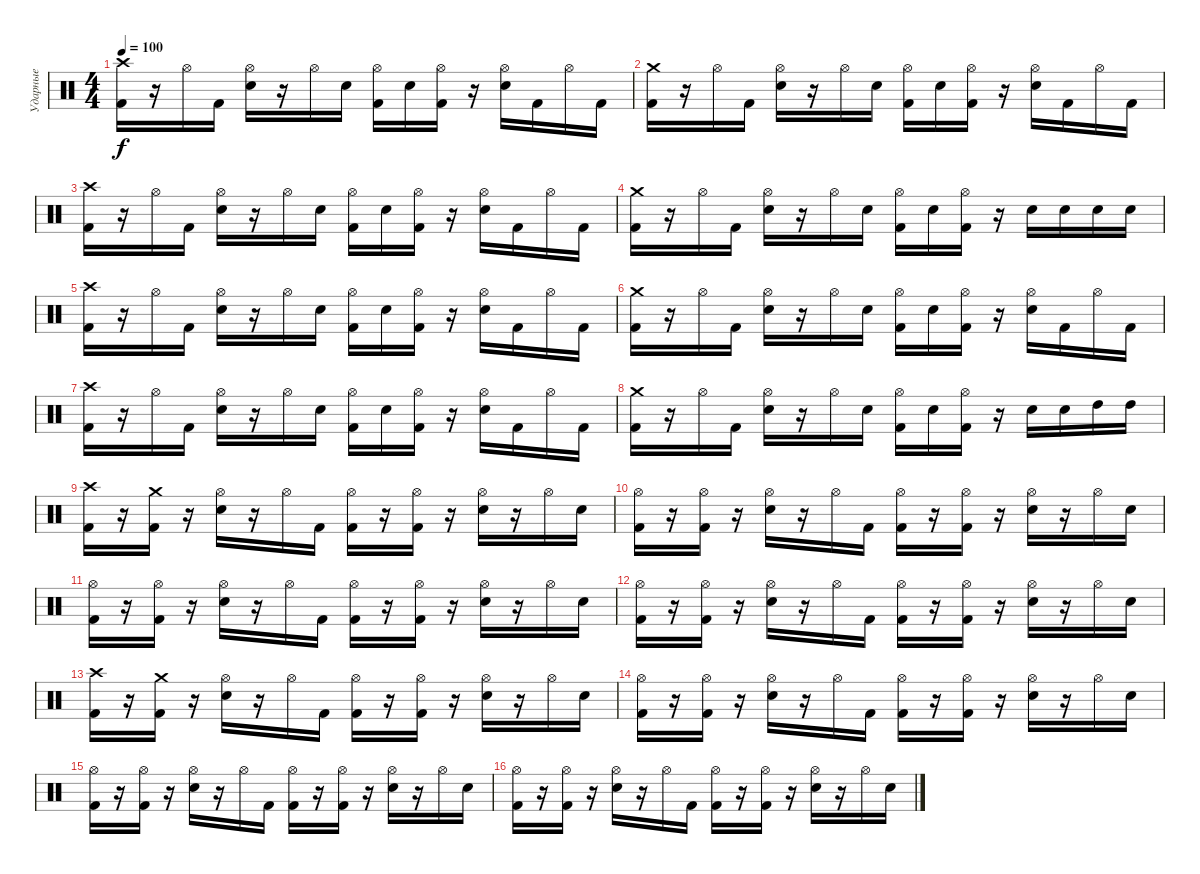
\track ("Ударные" "Ударные") {instrument percussion}
\staff {score}
\articulation defaults
\ts (4 4)
\tempo 100
\clef neutral
\ks c
("Crash high (hit)" "Kick (hit) 2").16{dy f} r.16 "Hi-Hat (open)".16 "Kick (hit) 2".16 ("Hi-Hat (open)" "Snare (hit) 2").16 r.16 "Hi-Hat (open)".16 "Snare (hit) 2".16 ("Hi-Hat (open)" "Kick (hit) 2").16 "Snare (hit) 2".16 ("Hi-Hat (open)" "Kick (hit) 2").16 r.16 ("Hi-Hat (open)" "Snare (hit) 2").16 "Kick (hit) 2".16 "Hi-Hat (open)".16 "Kick (hit) 2".16 |
("Crash medium (hit)" "Kick (hit) 2").16 r.16 "Hi-Hat (open)".16 "Kick (hit) 2".16 ("Hi-Hat (open)" "Snare (hit) 2").16 r.16 "Hi-Hat (open)".16 "Snare (hit) 2".16 ("Hi-Hat (open)" "Kick (hit) 2").16 "Snare (hit) 2".16 ("Hi-Hat (open)" "Kick (hit) 2").16 r.16 ("Hi-Hat (open)" "Snare (hit) 2").16 "Kick (hit) 2".16 "Hi-Hat (open)".16 "Kick (hit) 2".16 |
("Crash high (hit)" "Kick (hit) 2").16 r.16 "Hi-Hat (open)".16 "Kick (hit) 2".16 ("Hi-Hat (open)" "Snare (hit) 2").16 r.16 "Hi-Hat (open)".16 "Snare (hit) 2".16 ("Hi-Hat (open)" "Kick (hit) 2").16 "Snare (hit) 2".16 ("Hi-Hat (open)" "Kick (hit) 2").16 r.16 ("Hi-Hat (open)" "Snare (hit) 2").16 "Kick (hit) 2".16 "Hi-Hat (open)".16 "Kick (hit) 2".16 |
("Crash medium (hit)" "Kick (hit) 2").16 r.16 "Hi-Hat (open)".16 "Kick (hit) 2".16 ("Hi-Hat (open)" "Snare (hit) 2").16 r.16 "Hi-Hat (open)".16 "Snare (hit) 2".16 ("Hi-Hat (open)" "Kick (hit) 2").16 "Snare (hit) 2".16 ("Hi-Hat (open)" "Kick (hit) 2").16 r.16 "Snare (hit) 2".16 "Snare (hit) 2".16 "Snare (hit) 2".16 "Snare (hit) 2".16 |
("Crash high (hit)" "Kick (hit) 2").16 r.16 "Hi-Hat (open)".16 "Kick (hit) 2".16 ("Hi-Hat (open)" "Snare (hit) 2").16 r.16 "Hi-Hat (open)".16 "Snare (hit) 2".16 ("Hi-Hat (open)" "Kick (hit) 2").16 "Snare (hit) 2".16 ("Hi-Hat (open)" "Kick (hit) 2").16 r.16 ("Hi-Hat (open)" "Snare (hit) 2").16 "Kick (hit) 2".16 "Hi-Hat (open)".16 "Kick (hit) 2".16 |
("Crash medium (hit)" "Kick (hit) 2").16 r.16 "Hi-Hat (open)".16 "Kick (hit) 2".16 ("Hi-Hat (open)" "Snare (hit) 2").16 r.16 "Hi-Hat (open)".16 "Snare (hit) 2".16 ("Hi-Hat (open)" "Kick (hit) 2").16 "Snare (hit) 2".16 ("Hi-Hat (open)" "Kick (hit) 2").16 r.16 ("Hi-Hat (open)" "Snare (hit) 2").16 "Kick (hit) 2".16 "Hi-Hat (open)".16 "Kick (hit) 2".16 |
("Crash high (hit)" "Kick (hit) 2").16 r.16 "Hi-Hat (open)".16 "Kick (hit) 2".16 ("Hi-Hat (open)" "Snare (hit) 2").16 r.16 "Hi-Hat (open)".16 "Snare (hit) 2".16 ("Hi-Hat (open)" "Kick (hit) 2").16 "Snare (hit) 2".16 ("Hi-Hat (open)" "Kick (hit) 2").16 r.16 ("Hi-Hat (open)" "Snare (hit) 2").16 "Kick (hit) 2".16 "Hi-Hat (open)".16 "Kick (hit) 2".16 |
("Crash medium (hit)" "Kick (hit) 2").16 r.16 "Hi-Hat (open)".16 "Kick (hit) 2".16 ("Hi-Hat (open)" "Snare (hit) 2").16 r.16 "Hi-Hat (open)".16 "Snare (hit) 2".16 ("Hi-Hat (open)" "Kick (hit) 2").16 "Snare (hit) 2".16 ("Hi-Hat (open)" "Kick (hit) 2").16 r.16 "Snare (hit) 2".16 "Snare (hit) 2".16 "High Tom (hit)".16 "High Tom (hit)".16 |
("Crash high (hit)" "Kick (hit) 2").16 r.16 ("Crash medium (hit)" "Kick (hit) 2").16 r.16 ("Hi-Hat (open)" "Snare (hit) 2").16 r.16 "Hi-Hat (open)".16 "Kick (hit) 2".16 ("Hi-Hat (open)" "Kick (hit) 2").16 r.16 ("Hi-Hat (open)" "Kick (hit) 2").16 r.16 ("Hi-Hat (open)" "Snare (hit) 2").16 r.16 "Hi-Hat (open)".16 "Snare (hit) 2".16 |
("Hi-Hat (open)" "Kick (hit) 2").16 r.16 ("Hi-Hat (open)" "Kick (hit) 2").16 r.16 ("Hi-Hat (open)" "Snare (hit) 2").16 r.16 "Hi-Hat (open)".16 "Kick (hit) 2".16 ("Hi-Hat (open)" "Kick (hit) 2").16 r.16 ("Hi-Hat (open)" "Kick (hit) 2").16 r.16 ("Hi-Hat (open)" "Snare (hit) 2").16 r.16 "Hi-Hat (open)".16 "Snare (hit) 2".16 |
("Hi-Hat (open)" "Kick (hit) 2").16 r.16 ("Hi-Hat (open)" "Kick (hit) 2").16 r.16 ("Hi-Hat (open)" "Snare (hit) 2").16 r.16 "Hi-Hat (open)".16 "Kick (hit) 2".16 ("Hi-Hat (open)" "Kick (hit) 2").16 r.16 ("Hi-Hat (open)" "Kick (hit) 2").16 r.16 ("Hi-Hat (open)" "Snare (hit) 2").16 r.16 "Hi-Hat (open)".16 "Snare (hit) 2".16 |
("Hi-Hat (open)" "Kick (hit) 2").16 r.16 ("Hi-Hat (open)" "Kick (hit) 2").16 r.16 ("Hi-Hat (open)" "Snare (hit) 2").16 r.16 "Hi-Hat (open)".16 "Kick (hit) 2".16 ("Hi-Hat (open)" "Kick (hit) 2").16 r.16 ("Hi-Hat (open)" "Kick (hit) 2").16 r.16 ("Hi-Hat (open)" "Snare (hit) 2").16 r.16 "Hi-Hat (open)".16 "Snare (hit) 2".16 |
("Crash high (hit)" "Kick (hit) 2").16 r.16 ("Crash medium (hit)" "Kick (hit) 2").16 r.16 ("Hi-Hat (open)" "Snare (hit) 2").16 r.16 "Hi-Hat (open)".16 "Kick (hit) 2".16 ("Hi-Hat (open)" "Kick (hit) 2").16 r.16 ("Hi-Hat (open)" "Kick (hit) 2").16 r.16 ("Hi-Hat (open)" "Snare (hit) 2").16 r.16 "Hi-Hat (open)".16 "Snare (hit) 2".16 |
("Hi-Hat (open)" "Kick (hit) 2").16 r.16 ("Hi-Hat (open)" "Kick (hit) 2").16 r.16 ("Hi-Hat (open)" "Snare (hit) 2").16 r.16 "Hi-Hat (open)".16 "Kick (hit) 2".16 ("Hi-Hat (open)" "Kick (hit) 2").16 r.16 ("Hi-Hat (open)" "Kick (hit) 2").16 r.16 ("Hi-Hat (open)" "Snare (hit) 2").16 r.16 "Hi-Hat (open)".16 "Snare (hit) 2".16 |
("Hi-Hat (open)" "Kick (hit) 2").16 r.16 ("Hi-Hat (open)" "Kick (hit) 2").16 r.16 ("Hi-Hat (open)" "Snare (hit) 2").16 r.16 "Hi-Hat (open)".16 "Kick (hit) 2".16 ("Hi-Hat (open)" "Kick (hit) 2").16 r.16 ("Hi-Hat (open)" "Kick (hit) 2").16 r.16 ("Hi-Hat (open)" "Snare (hit) 2").16 r.16 "Hi-Hat (open)".16 "Snare (hit) 2".16 |
("Hi-Hat (open)" "Kick (hit) 2").16 r.16 ("Hi-Hat (open)" "Kick (hit) 2").16 r.16 ("Hi-Hat (open)" "Snare (hit) 2").16 r.16 "Hi-Hat (open)".16 "Kick (hit) 2".16 ("Hi-Hat (open)" "Kick (hit) 2").16 r.16 ("Hi-Hat (open)" "Kick (hit) 2").16 r.16 ("Hi-Hat (open)" "Snare (hit) 2").16 r.16 "Hi-Hat (open)".16 "Snare (hit) 2".16
